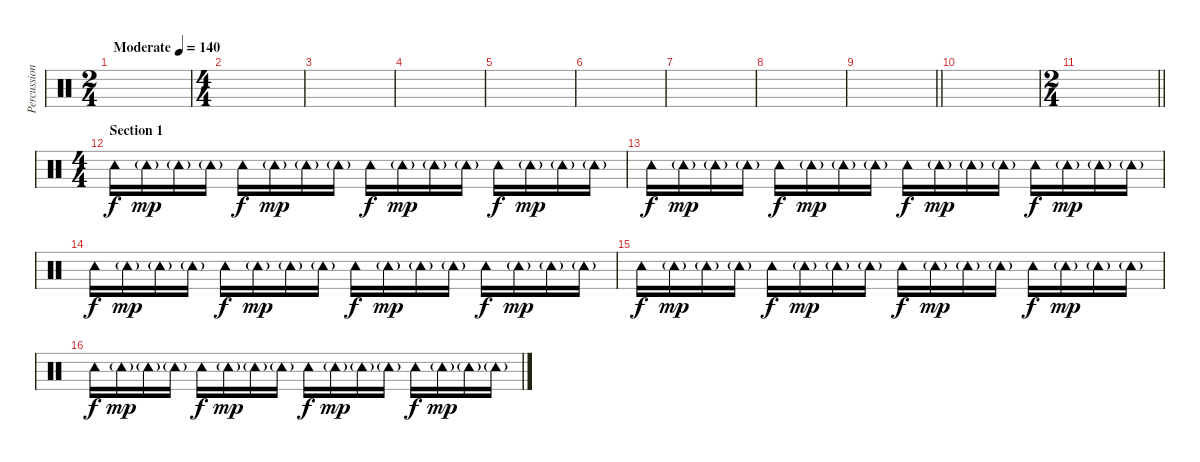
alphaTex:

\track ("Percussion" "Percussion") {instrument percussion}
\staff {score}
\articulation defaults
\ts (2 4)
\tempo (140 "Moderate")
\clef neutral
\ks c
|
\ts (4 4)
|
|
|
|
|
|
|
\barLineRight lightlight
|
|
\ts (2 4)
\barLineRight lightlight
|
\ts (4 4)
\section ("" "Section 1")
"Tambourine (hit)".16 "Tambourine (hit)"{g}.16{dy mp} "Tambourine (hit)"{g}.16 "Tambourine (hit)"{g}.16 "Tambourine (hit)".16{dy f} "Tambourine (hit)"{g}.16{dy mp} "Tambourine (hit)"{g}.16 "Tambourine (hit)"{g}.16 "Tambourine (hit)".16{dy f} "Tambourine (hit)"{g}.16{dy mp} "Tambourine (hit)"{g}.16 "Tambourine (hit)"{g}.16 "Tambourine (hit)".16{dy f} "Tambourine (hit)"{g}.16{dy mp} "Tambourine (hit)"{g}.16 "Tambourine (hit)"{g}.16 |
"Tambourine (hit)".16{dy f} "Tambourine (hit)"{g}.16{dy mp} "Tambourine (hit)"{g}.16 "Tambourine (hit)"{g}.16 "Tambourine (hit)".16{dy f} "Tambourine (hit)"{g}.16{dy mp} "Tambourine (hit)"{g}.16 "Tambourine (hit)"{g}.16 "Tambourine (hit)".16{dy f} "Tambourine (hit)"{g}.16{dy mp} "Tambourine (hit)"{g}.16 "Tambourine (hit)"{g}.16 "Tambourine (hit)".16{dy f} "Tambourine (hit)"{g}.16{dy mp} "Tambourine (hit)"{g}.16 "Tambourine (hit)"{g}.16 |
"Tambourine (hit)".16{dy f} "Tambourine (hit)"{g}.16{dy mp} "Tambourine (hit)"{g}.16 "Tambourine (hit)"{g}.16 "Tambourine (hit)".16{dy f} "Tambourine (hit)"{g}.16{dy mp} "Tambourine (hit)"{g}.16 "Tambourine (hit)"{g}.16 "Tambourine (hit)".16{dy f} "Tambourine (hit)"{g}.16{dy mp} "Tambourine (hit)"{g}.16 "Tambourine (hit)"{g}.16 "Tambourine (hit)".16{dy f} "Tambourine (hit)"{g}.16{dy mp} "Tambourine (hit)"{g}.16 "Tambourine (hit)"{g}.16 |
"Tambourine (hit)".16{dy f} "Tambourine (hit)"{g}.16{dy mp} "Tambourine (hit)"{g}.16 "Tambourine (hit)"{g}.16 "Tambourine (hit)".16{dy f} "Tambourine (hit)"{g}.16{dy mp} "Tambourine (hit)"{g}.16 "Tambourine (hit)"{g}.16 "Tambourine (hit)".16{dy f} "Tambourine (hit)"{g}.16{dy mp} "Tambourine (hit)"{g}.16 "Tambourine (hit)"{g}.16 "Tambourine (hit)".16{dy f} "Tambourine (hit)"{g}.16{dy mp} "Tambourine (hit)"{g}.16 "Tambourine (hit)"{g}.16 |
"Tambourine (hit)".16{dy f} "Tambourine (hit)"{g}.16{dy mp} "Tambourine (hit)"{g}.16 "Tambourine (hit)"{g}.16 "Tambourine (hit)".16{dy f} "Tambourine (hit)"{g}.16{dy mp} "Tambourine (hit)"{g}.16 "Tambourine (hit)"{g}.16 "Tambourine (hit)".16{dy f} "Tambourine (hit)"{g}.16{dy mp} "Tambourine (hit)"{g}.16 "Tambourine (hit)"{g}.16 "Tambourine (hit)".16{dy f} "Tambourine (hit)"{g}.16{dy mp} "Tambourine (hit)"{g}.16 "Tambourine (hit)"{g}.16
